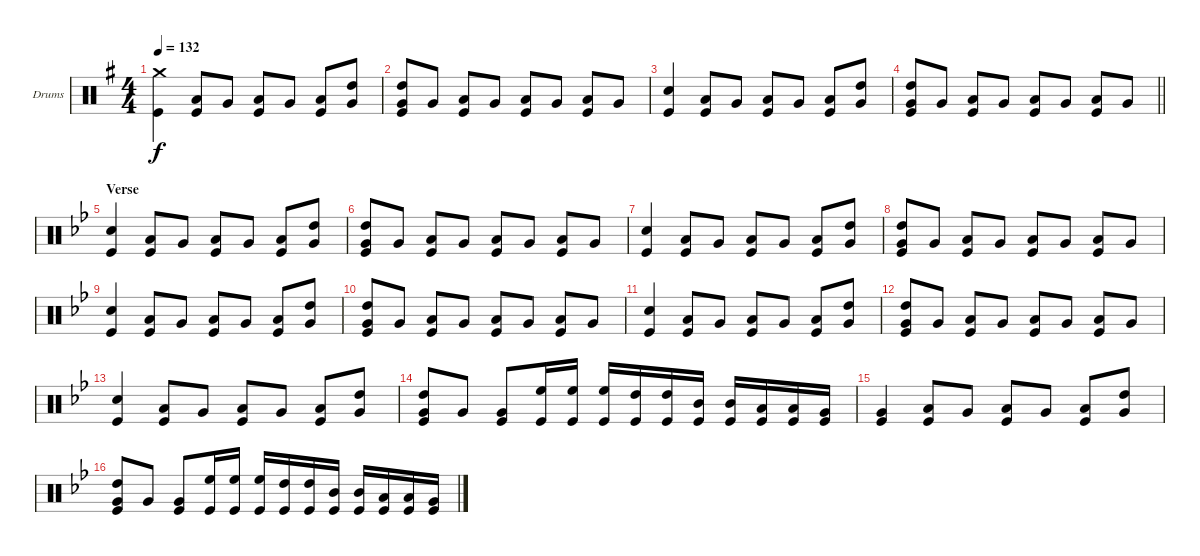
\bracketExtendMode groupsimilarinstruments
\firstSystemTrackNameOrientation horizontal
\otherSystemsTrackNameOrientation horizontal
\track ("Drumkit" "Drums") {instrument percussion}
\staff {score}
\articulation defaults
\ts (4 4)
\tempo 132
\clef neutral
\ks g
("Crash medium (hit)" "Kick (hit)").4{dy f} ("Low Tom (hit)" "Kick (hit)").8 "Very Low Tom (hit)".8 ("Low Tom (hit)" "Kick (hit)").8 "Very Low Tom (hit)".8 ("Low Tom (hit)" "Kick (hit)").8 ("High Tom (hit)" "Very Low Tom (hit)").8 |
("High Tom (hit)" "Very Low Tom (hit)" "Kick (hit)").8 "Very Low Tom (hit)".8 ("Low Tom (hit)" "Kick (hit)").8 "Very Low Tom (hit)".8 ("Low Tom (hit)" "Kick (hit)").8 "Very Low Tom (hit)".8 ("Low Tom (hit)" "Kick (hit)").8 "Very Low Tom (hit)".8 |
("Snare (hit) 2" "Kick (hit)").4 ("Low Tom (hit)" "Kick (hit)").8 "Very Low Tom (hit)".8 ("Low Tom (hit)" "Kick (hit)").8 "Very Low Tom (hit)".8 ("Low Tom (hit)" "Kick (hit)").8 ("High Tom (hit)" "Very Low Tom (hit)").8 |
\barLineRight lightlight
("High Tom (hit)" "Very Low Tom (hit)" "Kick (hit)").8 "Very Low Tom (hit)".8 ("Low Tom (hit)" "Kick (hit)").8 "Very Low Tom (hit)".8 ("Low Tom (hit)" "Kick (hit)").8 "Very Low Tom (hit)".8 ("Low Tom (hit)" "Kick (hit)").8 "Very Low Tom (hit)".8 |
\section ("" "Verse")
\ks bb
("Snare (hit) 2" "Kick (hit)").4 ("Low Tom (hit)" "Kick (hit)").8 "Very Low Tom (hit)".8 ("Low Tom (hit)" "Kick (hit)").8 "Very Low Tom (hit)".8 ("Low Tom (hit)" "Kick (hit)").8 ("High Tom (hit)" "Very Low Tom (hit)").8 |
("High Tom (hit)" "Very Low Tom (hit)" "Kick (hit)").8 "Very Low Tom (hit)".8 ("Low Tom (hit)" "Kick (hit)").8 "Very Low Tom (hit)".8 ("Low Tom (hit)" "Kick (hit)").8 "Very Low Tom (hit)".8 ("Low Tom (hit)" "Kick (hit)").8 "Very Low Tom (hit)".8 |
("Snare (hit) 2" "Kick (hit)").4 ("Low Tom (hit)" "Kick (hit)").8 "Very Low Tom (hit)".8 ("Low Tom (hit)" "Kick (hit)").8 "Very Low Tom (hit)".8 ("Low Tom (hit)" "Kick (hit)").8 ("High Tom (hit)" "Very Low Tom (hit)").8 |
("High Tom (hit)" "Very Low Tom (hit)" "Kick (hit)").8 "Very Low Tom (hit)".8 ("Low Tom (hit)" "Kick (hit)").8 "Very Low Tom (hit)".8 ("Low Tom (hit)" "Kick (hit)").8 "Very Low Tom (hit)".8 ("Low Tom (hit)" "Kick (hit)").8 "Very Low Tom (hit)".8 |
("Snare (hit) 2" "Kick (hit)").4 ("Low Tom (hit)" "Kick (hit)").8 "Very Low Tom (hit)".8 ("Low Tom (hit)" "Kick (hit)").8 "Very Low Tom (hit)".8 ("Low Tom (hit)" "Kick (hit)").8 ("High Tom (hit)" "Very Low Tom (hit)").8 |
("High Tom (hit)" "Very Low Tom (hit)" "Kick (hit)").8 "Very Low Tom (hit)".8 ("Low Tom (hit)" "Kick (hit)").8 "Very Low Tom (hit)".8 ("Low Tom (hit)" "Kick (hit)").8 "Very Low Tom (hit)".8 ("Low Tom (hit)" "Kick (hit)").8 "Very Low Tom (hit)".8 |
("Snare (hit) 2" "Kick (hit)").4 ("Low Tom (hit)" "Kick (hit)").8 "Very Low Tom (hit)".8 ("Low Tom (hit)" "Kick (hit)").8 "Very Low Tom (hit)".8 ("Low Tom (hit)" "Kick (hit)").8 ("High Tom (hit)" "Very Low Tom (hit)").8 |
("High Tom (hit)" "Very Low Tom (hit)" "Kick (hit)").8 "Very Low Tom (hit)".8 ("Low Tom (hit)" "Kick (hit)").8 "Very Low Tom (hit)".8 ("Low Tom (hit)" "Kick (hit)").8 "Very Low Tom (hit)".8 ("Low Tom (hit)" "Kick (hit)").8 "Very Low Tom (hit)".8 |
("Snare (hit) 2" "Kick (hit)").4 ("Low Tom (hit)" "Kick (hit)").8 "Very Low Tom (hit)".8 ("Low Tom (hit)" "Kick (hit)").8 "Very Low Tom (hit)".8 ("Low Tom (hit)" "Kick (hit)").8 ("High Tom (hit)" "Very Low Tom (hit)").8 |
("High Tom (hit)" "Very Low Tom (hit)" "Kick (hit)").8 "Very Low Tom (hit)".8 ("Very Low Tom (hit)" "Kick (hit)").8 ("High Floor Tom (hit)" "Kick (hit)").16 ("High Floor Tom (hit)" "Kick (hit)").16 ("High Floor Tom (hit)" "Kick (hit)").16 ("High Tom (hit)" "Kick (hit)").16 ("High Tom (hit)" "Kick (hit)").16 ("Mid Tom (hit)" "Kick (hit)").16 ("Mid Tom (hit)" "Kick (hit)").16 ("Low Tom (hit)" "Kick (hit)").16 ("Low Tom (hit)" "Kick (hit)").16 ("Very Low Tom (hit)" "Kick (hit)").16 |
("Very Low Tom (hit)" "Kick (hit)").4 ("Low Tom (hit)" "Kick (hit)").8 "Very Low Tom (hit)".8 ("Low Tom (hit)" "Kick (hit)").8 "Very Low Tom (hit)".8 ("Low Tom (hit)" "Kick (hit)").8 ("High Tom (hit)" "Very Low Tom (hit)").8 |
("High Tom (hit)" "Very Low Tom (hit)" "Kick (hit)").8 "Very Low Tom (hit)".8 ("Very Low Tom (hit)" "Kick (hit)").8 ("High Floor Tom (hit)" "Kick (hit)").16 ("High Floor Tom (hit)" "Kick (hit)").16 ("High Floor Tom (hit)" "Kick (hit)").16 ("High Tom (hit)" "Kick (hit)").16 ("High Tom (hit)" "Kick (hit)").16 ("Mid Tom (hit)" "Kick (hit)").16 ("Mid Tom (hit)" "Kick (hit)").16 ("Low Tom (hit)" "Kick (hit)").16 ("Low Tom (hit)" "Kick (hit)").16 ("Very Low Tom (hit)" "Kick (hit)").16
